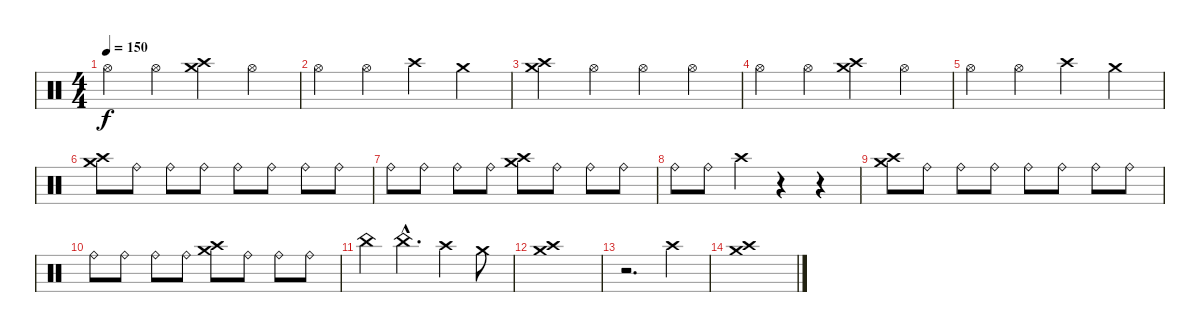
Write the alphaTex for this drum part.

\track "" {instrument percussion}
\staff {score}
\articulation defaults
\ts (4 4)
\tempo 150
\clef neutral
\ks c "Hi-Hat (open)".4{dy f} "Hi-Hat (open)".4
("Crash medium (hit)" "Crash high (hit)").4 "Hi-Hat (open)".4 |
"Hi-Hat (open)".4 "Hi-Hat (open)".4 "Crash high (hit)".4 "Crash medium (hit)".4 |
("Crash medium (hit)" "Crash high (hit)").4 "Hi-Hat (open)".4 "Hi-Hat (open)".4 "Hi-Hat (open)".4 |
"Hi-Hat (open)".4 "Hi-Hat (open)".4 ("Crash medium (hit)" "Crash high (hit)").4 "Hi-Hat (open)".4 |
"Hi-Hat (open)".4 "Hi-Hat (open)".4 "Crash high (hit)".4 "Crash medium (hit)".4 |
("Crash medium (hit)" "Crash high (hit)").8 "Ride (bell)".8 "Ride (bell)".8 "Ride (bell)".8 "Ride (bell)".8 "Ride (bell)".8 "Ride (bell)".8 "Ride (bell)".8 |
"Ride (bell)".8 "Ride (bell)".8 "Ride (bell)".8 "Ride (bell)".8 ("Crash medium (hit)" "Crash high (hit)").8 "Ride (bell)".8 "Ride (bell)".8 "Ride (bell)".8 |
"Ride (bell)".8 "Ride (bell)".8 "Crash high (hit)".4 r.4 r.4 |
("Crash medium (hit)" "Crash high (hit)").8 "Ride (bell)".8 "Ride (bell)".8 "Ride (bell)".8 "Ride (bell)".8 "Ride (bell)".8 "Ride (bell)".8 "Ride (bell)".8 |
"Ride (bell)".8 "Ride (bell)".8 "Ride (bell)".8 "Ride (bell)".8 ("Crash medium (hit)" "Crash high (hit)").8 "Ride (bell)".8 "Ride (bell)".8 "Ride (bell)".8 |
"China (hit)".4 "China (hit)"{hac}.4{d} "Crash high (hit)".4 "Crash medium (hit)".8 |
("Crash medium (hit)" "Crash high (hit)").1 |
r.2{d} "Crash high (hit)".4 |
("Crash medium (hit)" "Crash high (hit)").1
